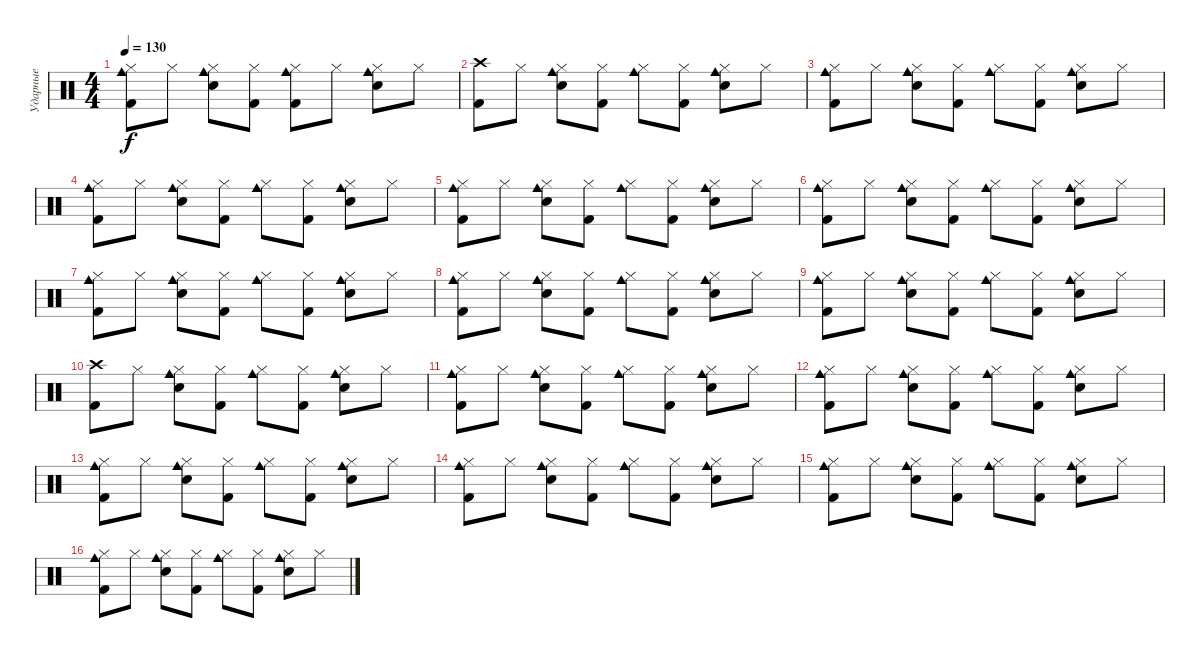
\track ("Ударные" "Ударные") {instrument percussion}
\staff {score}
\articulation defaults
\ts (4 4)
\tempo 130
\clef neutral
\ks c
("Hi-Hat (closed)" "Cowbell medium (hit)" "Kick (hit) 2").8{dy f} "Hi-Hat (closed)".8 ("Hi-Hat (closed)" "Cowbell medium (hit)" "Snare (hit) 2").8 ("Hi-Hat (closed)" "Kick (hit) 2").8 ("Hi-Hat (closed)" "Cowbell medium (hit)" "Kick (hit) 2").8 "Hi-Hat (closed)".8 ("Hi-Hat (closed)" "Cowbell medium (hit)" "Snare (hit) 2").8 "Hi-Hat (closed)".8 |
("Crash high (hit)" "Kick (hit) 2").8 "Hi-Hat (closed)".8 ("Hi-Hat (closed)" "Cowbell medium (hit)" "Snare (hit) 2").8 ("Hi-Hat (closed)" "Kick (hit) 2").8 ("Hi-Hat (closed)" "Cowbell medium (hit)").8 ("Hi-Hat (closed)" "Kick (hit) 2").8 ("Hi-Hat (closed)" "Cowbell medium (hit)" "Snare (hit) 2").8 "Hi-Hat (closed)".8 |
("Hi-Hat (closed)" "Cowbell medium (hit)" "Kick (hit) 2").8 "Hi-Hat (closed)".8 ("Hi-Hat (closed)" "Cowbell medium (hit)" "Snare (hit) 2").8 ("Hi-Hat (closed)" "Kick (hit) 2").8 ("Hi-Hat (closed)" "Cowbell medium (hit)").8 ("Hi-Hat (closed)" "Kick (hit) 2").8 ("Hi-Hat (closed)" "Cowbell medium (hit)" "Snare (hit) 2").8 "Hi-Hat (closed)".8 |
("Hi-Hat (closed)" "Cowbell medium (hit)" "Kick (hit) 2").8 "Hi-Hat (closed)".8 ("Hi-Hat (closed)" "Cowbell medium (hit)" "Snare (hit) 2").8 ("Hi-Hat (closed)" "Kick (hit) 2").8 ("Hi-Hat (closed)" "Cowbell medium (hit)").8 ("Hi-Hat (closed)" "Kick (hit) 2").8 ("Hi-Hat (closed)" "Cowbell medium (hit)" "Snare (hit) 2").8 "Hi-Hat (closed)".8 |
("Hi-Hat (closed)" "Cowbell medium (hit)" "Kick (hit) 2").8 "Hi-Hat (closed)".8 ("Hi-Hat (closed)" "Cowbell medium (hit)" "Snare (hit) 2").8 ("Hi-Hat (closed)" "Kick (hit) 2").8 ("Hi-Hat (closed)" "Cowbell medium (hit)").8 ("Hi-Hat (closed)" "Kick (hit) 2").8 ("Hi-Hat (closed)" "Cowbell medium (hit)" "Snare (hit) 2").8 "Hi-Hat (closed)".8 |
("Hi-Hat (closed)" "Cowbell medium (hit)" "Kick (hit) 2").8 "Hi-Hat (closed)".8 ("Hi-Hat (closed)" "Cowbell medium (hit)" "Snare (hit) 2").8 ("Hi-Hat (closed)" "Kick (hit) 2").8 ("Hi-Hat (closed)" "Cowbell medium (hit)").8 ("Hi-Hat (closed)" "Kick (hit) 2").8 ("Hi-Hat (closed)" "Cowbell medium (hit)" "Snare (hit) 2").8 "Hi-Hat (closed)".8 |
("Hi-Hat (closed)" "Cowbell medium (hit)" "Kick (hit) 2").8 "Hi-Hat (closed)".8 ("Hi-Hat (closed)" "Cowbell medium (hit)" "Snare (hit) 2").8 ("Hi-Hat (closed)" "Kick (hit) 2").8 ("Hi-Hat (closed)" "Cowbell medium (hit)").8 ("Hi-Hat (closed)" "Kick (hit) 2").8 ("Hi-Hat (closed)" "Cowbell medium (hit)" "Snare (hit) 2").8 "Hi-Hat (closed)".8 |
("Hi-Hat (closed)" "Cowbell medium (hit)" "Kick (hit) 2").8 "Hi-Hat (closed)".8 ("Hi-Hat (closed)" "Cowbell medium (hit)" "Snare (hit) 2").8 ("Hi-Hat (closed)" "Kick (hit) 2").8 ("Hi-Hat (closed)" "Cowbell medium (hit)").8 ("Hi-Hat (closed)" "Kick (hit) 2").8 ("Hi-Hat (closed)" "Cowbell medium (hit)" "Snare (hit) 2").8 "Hi-Hat (closed)".8 |
("Hi-Hat (closed)" "Cowbell medium (hit)" "Kick (hit) 2").8 "Hi-Hat (closed)".8 ("Hi-Hat (closed)" "Cowbell medium (hit)" "Snare (hit) 2").8 ("Hi-Hat (closed)" "Kick (hit) 2").8 ("Hi-Hat (closed)" "Cowbell medium (hit)").8 ("Hi-Hat (closed)" "Kick (hit) 2").8 ("Hi-Hat (closed)" "Cowbell medium (hit)" "Snare (hit) 2").8 "Hi-Hat (closed)".8 |
("Crash high (hit)" "Kick (hit) 2").8 "Hi-Hat (closed)".8 ("Hi-Hat (closed)" "Cowbell medium (hit)" "Snare (hit) 2").8 ("Hi-Hat (closed)" "Kick (hit) 2").8 ("Hi-Hat (closed)" "Cowbell medium (hit)").8 ("Hi-Hat (closed)" "Kick (hit) 2").8 ("Hi-Hat (closed)" "Cowbell medium (hit)" "Snare (hit) 2").8 "Hi-Hat (closed)".8 |
("Hi-Hat (closed)" "Cowbell medium (hit)" "Kick (hit) 2").8 "Hi-Hat (closed)".8 ("Hi-Hat (closed)" "Cowbell medium (hit)" "Snare (hit) 2").8 ("Hi-Hat (closed)" "Kick (hit) 2").8 ("Hi-Hat (closed)" "Cowbell medium (hit)").8 ("Hi-Hat (closed)" "Kick (hit) 2").8 ("Hi-Hat (closed)" "Cowbell medium (hit)" "Snare (hit) 2").8 "Hi-Hat (closed)".8 |
("Hi-Hat (closed)" "Cowbell medium (hit)" "Kick (hit) 2").8 "Hi-Hat (closed)".8 ("Hi-Hat (closed)" "Cowbell medium (hit)" "Snare (hit) 2").8 ("Hi-Hat (closed)" "Kick (hit) 2").8 ("Hi-Hat (closed)" "Cowbell medium (hit)").8 ("Hi-Hat (closed)" "Kick (hit) 2").8 ("Hi-Hat (closed)" "Cowbell medium (hit)" "Snare (hit) 2").8 "Hi-Hat (closed)".8 |
("Hi-Hat (closed)" "Cowbell medium (hit)" "Kick (hit) 2").8 "Hi-Hat (closed)".8 ("Hi-Hat (closed)" "Cowbell medium (hit)" "Snare (hit) 2").8 ("Hi-Hat (closed)" "Kick (hit) 2").8 ("Hi-Hat (closed)" "Cowbell medium (hit)").8 ("Hi-Hat (closed)" "Kick (hit) 2").8 ("Hi-Hat (closed)" "Cowbell medium (hit)" "Snare (hit) 2").8 "Hi-Hat (closed)".8 |
("Hi-Hat (closed)" "Cowbell medium (hit)" "Kick (hit) 2").8 "Hi-Hat (closed)".8 ("Hi-Hat (closed)" "Cowbell medium (hit)" "Snare (hit) 2").8 ("Hi-Hat (closed)" "Kick (hit) 2").8 ("Hi-Hat (closed)" "Cowbell medium (hit)").8 ("Hi-Hat (closed)" "Kick (hit) 2").8 ("Hi-Hat (closed)" "Cowbell medium (hit)" "Snare (hit) 2").8 "Hi-Hat (closed)".8 |
("Hi-Hat (closed)" "Cowbell medium (hit)" "Kick (hit) 2").8 "Hi-Hat (closed)".8 ("Hi-Hat (closed)" "Cowbell medium (hit)" "Snare (hit) 2").8 ("Hi-Hat (closed)" "Kick (hit) 2").8 ("Hi-Hat (closed)" "Cowbell medium (hit)").8 ("Hi-Hat (closed)" "Kick (hit) 2").8 ("Hi-Hat (closed)" "Cowbell medium (hit)" "Snare (hit) 2").8 "Hi-Hat (closed)".8 |
("Hi-Hat (closed)" "Cowbell medium (hit)" "Kick (hit) 2").8 "Hi-Hat (closed)".8 ("Hi-Hat (closed)" "Cowbell medium (hit)" "Snare (hit) 2").8 ("Hi-Hat (closed)" "Kick (hit) 2").8 ("Hi-Hat (closed)" "Cowbell medium (hit)").8 ("Hi-Hat (closed)" "Kick (hit) 2").8 ("Hi-Hat (closed)" "Cowbell medium (hit)" "Snare (hit) 2").8 "Hi-Hat (closed)".8
